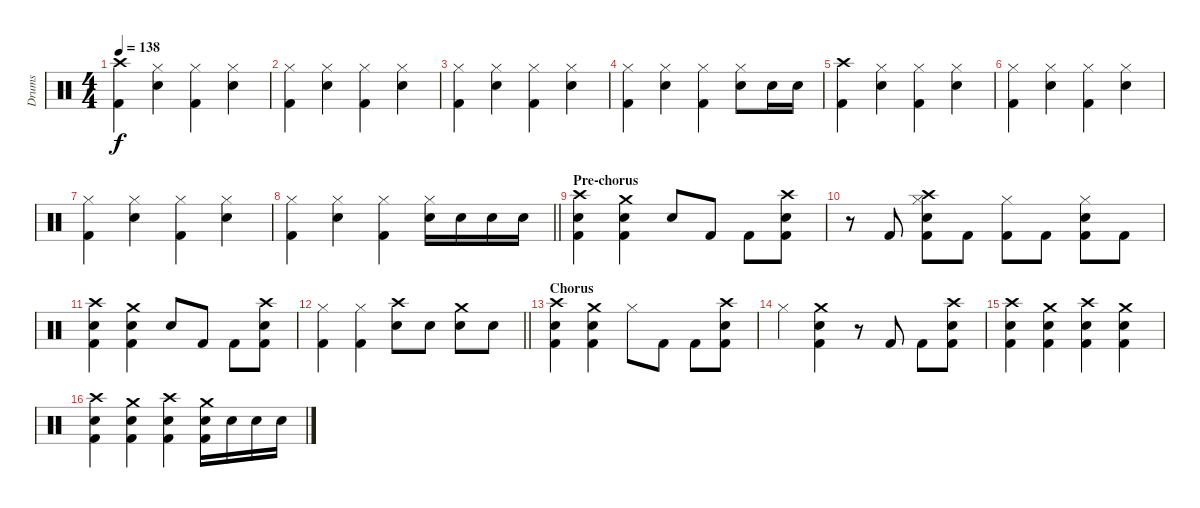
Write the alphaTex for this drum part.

\track ("Drums" "Drums") {instrument percussion}
\staff {score}
\articulation defaults
\ts (4 4)
\tempo 138
\clef neutral
\ks c
("Crash high (hit)" "Kick (hit) 2").4{dy f} ("Snare (hit) 2" "Hi-Hat (closed)").4 ("Hi-Hat (closed)" "Kick (hit) 2").4 ("Snare (hit) 2" "Hi-Hat (closed)").4 |
("Hi-Hat (closed)" "Kick (hit) 2").4 ("Snare (hit) 2" "Hi-Hat (closed)").4 ("Hi-Hat (closed)" "Kick (hit) 2").4 ("Snare (hit) 2" "Hi-Hat (closed)").4 |
("Hi-Hat (closed)" "Kick (hit) 2").4 ("Snare (hit) 2" "Hi-Hat (closed)").4 ("Hi-Hat (closed)" "Kick (hit) 2").4 ("Snare (hit) 2" "Hi-Hat (closed)").4 |
("Hi-Hat (closed)" "Kick (hit) 2").4 ("Snare (hit) 2" "Hi-Hat (closed)").4 ("Hi-Hat (closed)" "Kick (hit) 2").4 ("Snare (hit) 2" "Hi-Hat (closed)").8 "Snare (hit) 2".16 "Snare (hit) 2".16 |
("Crash high (hit)" "Kick (hit) 2").4 ("Snare (hit) 2" "Hi-Hat (closed)").4 ("Hi-Hat (closed)" "Kick (hit) 2").4 ("Snare (hit) 2" "Hi-Hat (closed)").4 |
("Hi-Hat (closed)" "Kick (hit) 2").4 ("Snare (hit) 2" "Hi-Hat (closed)").4 ("Hi-Hat (closed)" "Kick (hit) 2").4 ("Snare (hit) 2" "Hi-Hat (closed)").4 |
("Hi-Hat (closed)" "Kick (hit) 2").4 ("Snare (hit) 2" "Hi-Hat (closed)").4 ("Hi-Hat (closed)" "Kick (hit) 2").4 ("Snare (hit) 2" "Hi-Hat (closed)").4 |
\barLineRight lightlight
("Hi-Hat (closed)" "Kick (hit) 2").4 ("Snare (hit) 2" "Hi-Hat (closed)").4 ("Hi-Hat (closed)" "Kick (hit) 2").4 ("Snare (hit) 2" "Hi-Hat (closed)").16 "Snare (hit) 2".16 "Snare (hit) 2".16 "Snare (hit) 2".16 |
\section ("" "Pre-chorus")
("Crash high (hit)" "Snare (hit) 2" "Kick (hit) 2").4 ("Crash medium (hit)" "Snare (hit) 2" "Kick (hit) 2").4 "Snare (hit) 2".8 "Kick (hit) 2".8 "Kick (hit) 2".8 ("Crash high (hit)" "Snare (hit) 2" "Kick (hit) 2").8 |
r.8 "Kick (hit) 2".8 ("Crash high (hit)" "Snare (hit) 2" "Hi-Hat (closed)" "Kick (hit) 2").8 "Kick (hit) 2".8 ("Hi-Hat (closed)" "Kick (hit) 2").8 "Kick (hit) 2".8 ("Snare (hit) 2" "Hi-Hat (closed)" "Kick (hit) 2").8 "Kick (hit) 2".8 |
("Crash high (hit)" "Snare (hit) 2" "Kick (hit) 2").4 ("Crash medium (hit)" "Snare (hit) 2" "Kick (hit) 2").4 "Snare (hit) 2".8 "Kick (hit) 2".8 "Kick (hit) 2".8 ("Crash high (hit)" "Snare (hit) 2" "Kick (hit) 2").8 |
\barLineRight lightlight
("Hi-Hat (closed)" "Kick (hit) 2").4 ("Hi-Hat (closed)" "Kick (hit) 2").4 ("Crash high (hit)" "Snare (hit) 2").8 "Snare (hit) 2".8 ("Crash medium (hit)" "Snare (hit) 2").8 "Snare (hit) 2".8 |
\section ("" "Chorus")
("Crash high (hit)" "Snare (hit) 2" "Kick (hit) 2").4 ("Crash medium (hit)" "Snare (hit) 2" "Kick (hit) 2").4 "Hi-Hat (closed)".8 "Kick (hit) 2".8 "Kick (hit) 2".8 ("Crash high (hit)" "Snare (hit) 2" "Kick (hit) 2").8 |
"Hi-Hat (closed)".4 ("Crash medium (hit)" "Snare (hit) 2" "Kick (hit) 2").4 r.8 "Kick (hit) 2".8 "Kick (hit) 2".8 ("Crash high (hit)" "Snare (hit) 2" "Kick (hit) 2").8 |
("Crash high (hit)" "Snare (hit) 2" "Kick (hit) 2").4 ("Crash medium (hit)" "Snare (hit) 2" "Kick (hit) 2").4 ("Crash high (hit)" "Snare (hit) 2" "Kick (hit) 2").4 ("Crash medium (hit)" "Snare (hit) 2" "Kick (hit) 2").4 |
("Crash high (hit)" "Snare (hit) 2" "Kick (hit) 2").4 ("Crash medium (hit)" "Snare (hit) 2" "Kick (hit) 2").4 ("Crash high (hit)" "Snare (hit) 2" "Kick (hit) 2").4 ("Crash medium (hit)" "Snare (hit) 2" "Kick (hit) 2").16 "Snare (hit) 2".16 "Snare (hit) 2".16 "Snare (hit) 2".16
